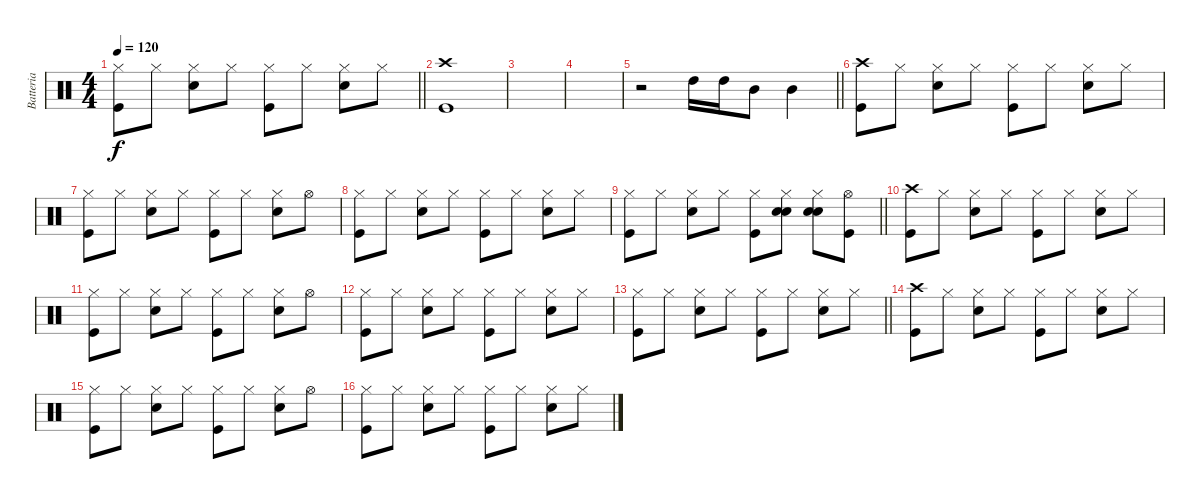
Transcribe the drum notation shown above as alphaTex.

\track ("Batteria" "Batteria") {instrument percussion}
\staff {score}
\articulation defaults
\ts (4 4)
\tempo 120
\clef neutral
\barLineRight lightlight
\ks c
("Kick (hit)" "Hi-Hat (closed)").8{dy f} "Hi-Hat (closed)".8 ("Snare (hit) 2" "Hi-Hat (closed)").8 "Hi-Hat (closed)".8 ("Kick (hit)" "Hi-Hat (closed)").8 "Hi-Hat (closed)".8 ("Snare (hit) 2" "Hi-Hat (closed)").8 "Hi-Hat (closed)".8 |
("Crash high (hit)" "Kick (hit)").1 |
|
|
\barLineRight lightlight
r.2 "High Tom (hit)".16 "High Tom (hit)".16 "Mid Tom (hit)".8 "Mid Tom (hit)".4 |
("Kick (hit)" "Crash high (hit)").8 "Hi-Hat (closed)".8 ("Snare (hit) 2" "Hi-Hat (closed)").8 "Hi-Hat (closed)".8 ("Kick (hit)" "Hi-Hat (closed)").8 "Hi-Hat (closed)".8 ("Snare (hit) 2" "Hi-Hat (closed)").8 "Hi-Hat (closed)".8 |
("Kick (hit)" "Hi-Hat (closed)").8 "Hi-Hat (closed)".8 ("Snare (hit) 2" "Hi-Hat (closed)").8 "Hi-Hat (closed)".8 ("Kick (hit)" "Hi-Hat (closed)").8 "Hi-Hat (closed)".8 ("Snare (hit) 2" "Hi-Hat (closed)").8 "Hi-Hat (open)".8 |
("Kick (hit)" "Hi-Hat (closed)").8 "Hi-Hat (closed)".8 ("Snare (hit) 2" "Hi-Hat (closed)").8 "Hi-Hat (closed)".8 ("Kick (hit)" "Hi-Hat (closed)").8 "Hi-Hat (closed)".8 ("Snare (hit) 2" "Hi-Hat (closed)").8 "Hi-Hat (closed)".8 |
\barLineRight lightlight
("Kick (hit)" "Hi-Hat (closed)").8 "Hi-Hat (closed)".8 ("Snare (hit) 2" "Hi-Hat (closed)").8 "Hi-Hat (closed)".8 ("Kick (hit)" "Hi-Hat (closed)").8 ("Hi-Hat (closed)" "Snare (hit) 2" "Hand Clap (hit)").8 ("Snare (hit) 2" "Hi-Hat (closed)" "Hand Clap (hit)").8 ("Hi-Hat (open)" "Kick (hit)").8 |
("Kick (hit)" "Crash high (hit)").8 "Hi-Hat (closed)".8 ("Snare (hit) 2" "Hi-Hat (closed)").8 "Hi-Hat (closed)".8 ("Kick (hit)" "Hi-Hat (closed)").8 "Hi-Hat (closed)".8 ("Snare (hit) 2" "Hi-Hat (closed)").8 "Hi-Hat (closed)".8 |
("Kick (hit)" "Hi-Hat (closed)").8 "Hi-Hat (closed)".8 ("Snare (hit) 2" "Hi-Hat (closed)").8 "Hi-Hat (closed)".8 ("Kick (hit)" "Hi-Hat (closed)").8 "Hi-Hat (closed)".8 ("Snare (hit) 2" "Hi-Hat (closed)").8 "Hi-Hat (open)".8 |
("Kick (hit)" "Hi-Hat (closed)").8 "Hi-Hat (closed)".8 ("Snare (hit) 2" "Hi-Hat (closed)").8 "Hi-Hat (closed)".8 ("Kick (hit)" "Hi-Hat (closed)").8 "Hi-Hat (closed)".8 ("Snare (hit) 2" "Hi-Hat (closed)").8 "Hi-Hat (closed)".8 |
\barLineRight lightlight
("Kick (hit)" "Hi-Hat (closed)").8 "Hi-Hat (closed)".8 ("Snare (hit) 2" "Hi-Hat (closed)").8 "Hi-Hat (closed)".8 ("Kick (hit)" "Hi-Hat (closed)").8 "Hi-Hat (closed)".8 ("Snare (hit) 2" "Hi-Hat (closed)").8 "Hi-Hat (closed)".8 |
("Kick (hit)" "Crash high (hit)").8 "Hi-Hat (closed)".8 ("Snare (hit) 2" "Hi-Hat (closed)").8 "Hi-Hat (closed)".8 ("Kick (hit)" "Hi-Hat (closed)").8 "Hi-Hat (closed)".8 ("Snare (hit) 2" "Hi-Hat (closed)").8 "Hi-Hat (closed)".8 |
("Kick (hit)" "Hi-Hat (closed)").8 "Hi-Hat (closed)".8 ("Snare (hit) 2" "Hi-Hat (closed)").8 "Hi-Hat (closed)".8 ("Kick (hit)" "Hi-Hat (closed)").8 "Hi-Hat (closed)".8 ("Snare (hit) 2" "Hi-Hat (closed)").8 "Hi-Hat (open)".8 |
("Kick (hit)" "Hi-Hat (closed)").8 "Hi-Hat (closed)".8 ("Snare (hit) 2" "Hi-Hat (closed)").8 "Hi-Hat (closed)".8 ("Kick (hit)" "Hi-Hat (closed)").8 "Hi-Hat (closed)".8 ("Snare (hit) 2" "Hi-Hat (closed)").8 "Hi-Hat (closed)".8
